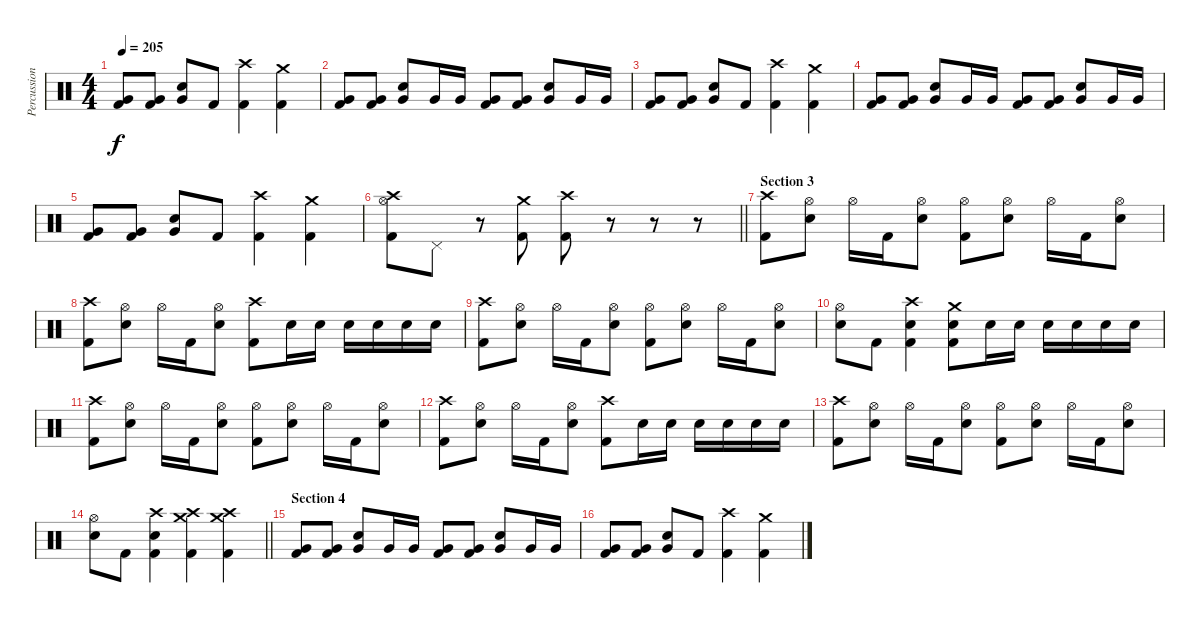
\track ("Percussion" "Percussion") {instrument percussion}
\staff {score}
\articulation defaults
\ts (4 4)
\tempo 205
\clef neutral
\ks c
("Very Low Tom (hit)" "Kick (hit) 2").8{dy f} ("Very Low Tom (hit)" "Kick (hit) 2").8 ("Very Low Tom (hit)" "Electric Snare (hit)").8 "Kick (hit) 2".8 ("Crash high (hit)" "Kick (hit) 2").4 ("Crash medium (hit)" "Kick (hit) 2").4 |
("Very Low Tom (hit)" "Kick (hit) 2").8 ("Very Low Tom (hit)" "Kick (hit) 2").8 ("Very Low Tom (hit)" "Electric Snare (hit)").8 "Very Low Tom (hit)".16 "Very Low Tom (hit)".16 ("Very Low Tom (hit)" "Kick (hit) 2").8 ("Very Low Tom (hit)" "Kick (hit) 2").8 ("Very Low Tom (hit)" "Electric Snare (hit)").8 "Very Low Tom (hit)".16 "Very Low Tom (hit)".16 |
("Very Low Tom (hit)" "Kick (hit) 2").8 ("Very Low Tom (hit)" "Kick (hit) 2").8 ("Very Low Tom (hit)" "Electric Snare (hit)").8 "Kick (hit) 2".8 ("Crash high (hit)" "Kick (hit) 2").4 ("Crash medium (hit)" "Kick (hit) 2").4 |
("Very Low Tom (hit)" "Kick (hit) 2").8 ("Very Low Tom (hit)" "Kick (hit) 2").8 ("Very Low Tom (hit)" "Electric Snare (hit)").8 "Very Low Tom (hit)".16 "Very Low Tom (hit)".16 ("Very Low Tom (hit)" "Kick (hit) 2").8 ("Very Low Tom (hit)" "Kick (hit) 2").8 ("Very Low Tom (hit)" "Electric Snare (hit)").8 "Very Low Tom (hit)".16 "Very Low Tom (hit)".16 |
("Very Low Tom (hit)" "Kick (hit) 2").8 ("Very Low Tom (hit)" "Kick (hit) 2").8 ("Very Low Tom (hit)" "Electric Snare (hit)").8 "Kick (hit) 2".8 ("Crash high (hit)" "Kick (hit) 2").4 ("Crash medium (hit)" "Kick (hit) 2").4 |
\barLineRight lightlight
("Crash high (hit)" "Kick (hit) 2" "Hi-Hat (open)").8 "Pedal Hi-Hat (hit)".8 r.8 ("Crash medium (hit)" "Kick (hit) 2").8 ("Crash high (hit)" "Kick (hit) 2").8 r.8 r.8 r.8 |
\section ("" "Section 3")
("Crash high (hit)" "Kick (hit) 2").8 ("Hi-Hat (open)" "Electric Snare (hit)").8 "Hi-Hat (open)".16 "Kick (hit) 2".16 ("Hi-Hat (open)" "Electric Snare (hit)").8 ("Hi-Hat (open)" "Kick (hit) 2").8 ("Hi-Hat (open)" "Electric Snare (hit)").8 "Hi-Hat (open)".16 "Kick (hit) 2".16 ("Hi-Hat (open)" "Electric Snare (hit)").8 |
("Crash high (hit)" "Kick (hit) 2").8 ("Hi-Hat (open)" "Electric Snare (hit)").8 "Hi-Hat (open)".16 "Kick (hit) 2".16 ("Hi-Hat (open)" "Electric Snare (hit)").8 ("Crash high (hit)" "Kick (hit) 2").8 "Electric Snare (hit)".16 "Electric Snare (hit)".16 "Electric Snare (hit)".16 "Electric Snare (hit)".16 "Electric Snare (hit)".16 "Electric Snare (hit)".16 |
("Crash high (hit)" "Kick (hit) 2").8 ("Hi-Hat (open)" "Electric Snare (hit)").8 "Hi-Hat (open)".16 "Kick (hit) 2".16 ("Hi-Hat (open)" "Electric Snare (hit)").8 ("Hi-Hat (open)" "Kick (hit) 2").8 ("Hi-Hat (open)" "Electric Snare (hit)").8 "Hi-Hat (open)".16 "Kick (hit) 2".16 ("Hi-Hat (open)" "Electric Snare (hit)").8 |
("Hi-Hat (open)" "Electric Snare (hit)").8 "Kick (hit) 2".8 ("Crash high (hit)" "Electric Snare (hit)" "Kick (hit) 2").4 ("Crash medium (hit)" "Electric Snare (hit)" "Kick (hit) 2").8 "Electric Snare (hit)".16 "Electric Snare (hit)".16 "Electric Snare (hit)".16 "Electric Snare (hit)".16 "Electric Snare (hit)".16 "Electric Snare (hit)".16 |
("Crash high (hit)" "Kick (hit) 2").8 ("Hi-Hat (open)" "Electric Snare (hit)").8 "Hi-Hat (open)".16 "Kick (hit) 2".16 ("Hi-Hat (open)" "Electric Snare (hit)").8 ("Hi-Hat (open)" "Kick (hit) 2").8 ("Hi-Hat (open)" "Electric Snare (hit)").8 "Hi-Hat (open)".16 "Kick (hit) 2".16 ("Hi-Hat (open)" "Electric Snare (hit)").8 |
("Crash high (hit)" "Kick (hit) 2").8 ("Hi-Hat (open)" "Electric Snare (hit)").8 "Hi-Hat (open)".16 "Kick (hit) 2".16 ("Hi-Hat (open)" "Electric Snare (hit)").8 ("Crash high (hit)" "Kick (hit) 2").8 "Electric Snare (hit)".16 "Electric Snare (hit)".16 "Electric Snare (hit)".16 "Electric Snare (hit)".16 "Electric Snare (hit)".16 "Electric Snare (hit)".16 |
("Crash high (hit)" "Kick (hit) 2").8 ("Hi-Hat (open)" "Electric Snare (hit)").8 "Hi-Hat (open)".16 "Kick (hit) 2".16 ("Hi-Hat (open)" "Electric Snare (hit)").8 ("Hi-Hat (open)" "Kick (hit) 2").8 ("Hi-Hat (open)" "Electric Snare (hit)").8 "Hi-Hat (open)".16 "Kick (hit) 2".16 ("Hi-Hat (open)" "Electric Snare (hit)").8 |
\barLineRight lightlight
("Hi-Hat (open)" "Electric Snare (hit)").8 "Kick (hit) 2".8 ("Crash high (hit)" "Electric Snare (hit)" "Kick (hit) 2").4 ("Crash high (hit)" "Crash medium (hit)" "Kick (hit) 2").4 ("Crash high (hit)" "Crash medium (hit)" "Kick (hit) 2").4 |
\section ("" "Section 4")
("Very Low Tom (hit)" "Kick (hit) 2").8 ("Very Low Tom (hit)" "Kick (hit) 2").8 ("Very Low Tom (hit)" "Electric Snare (hit)").8 "Very Low Tom (hit)".16 "Very Low Tom (hit)".16 ("Very Low Tom (hit)" "Kick (hit) 2").8 ("Very Low Tom (hit)" "Kick (hit) 2").8 ("Very Low Tom (hit)" "Electric Snare (hit)").8 "Very Low Tom (hit)".16 "Very Low Tom (hit)".16 |
("Very Low Tom (hit)" "Kick (hit) 2").8 ("Very Low Tom (hit)" "Kick (hit) 2").8 ("Very Low Tom (hit)" "Electric Snare (hit)").8 "Kick (hit) 2".8 ("Crash high (hit)" "Kick (hit) 2").4 ("Crash medium (hit)" "Kick (hit) 2").4
